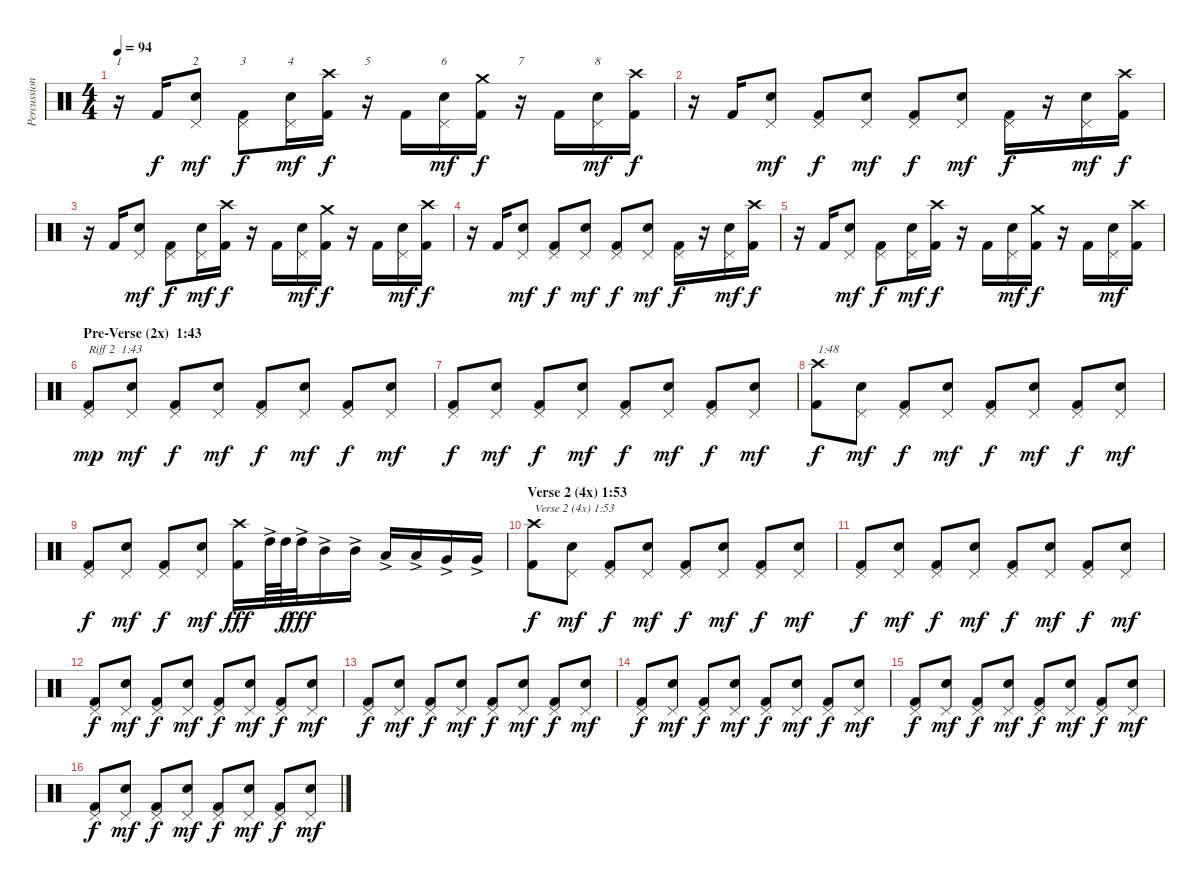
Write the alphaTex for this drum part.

\track ("Percussion" "Percussion") {instrument percussion}
\staff {score}
\articulation defaults
\chord ("1")
\chord ("2")
\chord ("3")
\chord ("4")
\chord ("5")
\chord ("6")
\chord ("7")
\chord ("8")
\ts (4 4)
\tempo 94
\clef neutral
\ks c
r.16{ch "1" dy f} "Kick (hit) 2".16 ("Snare (hit) 2" "Pedal Hi-Hat (hit)").8{ch "2" dy mf} ("Kick (hit) 2" "Pedal Hi-Hat (hit)").8{ch "3" dy f} ("Snare (hit) 2" "Pedal Hi-Hat (hit)").16{ch "4" dy mf} ("Kick (hit) 2" "Crash high (hit)").16{dy f} r.16{ch "5"} "Kick (hit) 2".16 ("Snare (hit) 2" "Pedal Hi-Hat (hit)").16{ch "6" dy mf} ("Kick (hit) 2" "Crash medium (hit)").16{dy f} r.16{ch "7"} "Kick (hit) 2".16 ("Snare (hit) 2" "Pedal Hi-Hat (hit)").16{ch "8" dy mf} ("Kick (hit) 2" "Crash high (hit)").16{dy f} |
r.16 "Kick (hit) 2".16 ("Snare (hit) 2" "Pedal Hi-Hat (hit)").8{dy mf} ("Kick (hit) 2" "Pedal Hi-Hat (hit)").8{dy f} ("Snare (hit) 2" "Pedal Hi-Hat (hit)").8{dy mf} ("Kick (hit) 2" "Pedal Hi-Hat (hit)").8{dy f} ("Snare (hit) 2" "Pedal Hi-Hat (hit)").8{dy mf} ("Kick (hit) 2" "Pedal Hi-Hat (hit)").16{dy f} r.16 ("Snare (hit) 2" "Pedal Hi-Hat (hit)").16{dy mf} ("Kick (hit) 2" "Crash high (hit)").16{dy f} |
r.16 "Kick (hit) 2".16 ("Snare (hit) 2" "Pedal Hi-Hat (hit)").8{dy mf} ("Kick (hit) 2" "Pedal Hi-Hat (hit)").8{dy f} ("Snare (hit) 2" "Pedal Hi-Hat (hit)").16{dy mf} ("Kick (hit) 2" "Crash high (hit)").16{dy f} r.16 "Kick (hit) 2".16 ("Snare (hit) 2" "Pedal Hi-Hat (hit)").16{dy mf} ("Kick (hit) 2" "Crash medium (hit)").16{dy f} r.16 "Kick (hit) 2".16 ("Snare (hit) 2" "Pedal Hi-Hat (hit)").16{dy mf} ("Kick (hit) 2" "Crash high (hit)").16{dy f} |
r.16 "Kick (hit) 2".16 ("Snare (hit) 2" "Pedal Hi-Hat (hit)").8{dy mf} ("Kick (hit) 2" "Pedal Hi-Hat (hit)").8{dy f} ("Snare (hit) 2" "Pedal Hi-Hat (hit)").8{dy mf} ("Kick (hit) 2" "Pedal Hi-Hat (hit)").8{dy f} ("Snare (hit) 2" "Pedal Hi-Hat (hit)").8{dy mf} ("Kick (hit) 2" "Pedal Hi-Hat (hit)").16{dy f} r.16 ("Snare (hit) 2" "Pedal Hi-Hat (hit)").16{dy mf} ("Kick (hit) 2" "Crash high (hit)").16{dy f} |
r.16 "Kick (hit) 2".16 ("Snare (hit) 2" "Pedal Hi-Hat (hit)").8{dy mf} ("Kick (hit) 2" "Pedal Hi-Hat (hit)").8{dy f} ("Snare (hit) 2" "Pedal Hi-Hat (hit)").16{dy mf} ("Kick (hit) 2" "Crash high (hit)").16{dy f} r.16 "Kick (hit) 2".16 ("Snare (hit) 2" "Pedal Hi-Hat (hit)").16{dy mf} ("Kick (hit) 2" "Crash medium (hit)").16{dy f} r.16 "Kick (hit) 2".16 ("Snare (hit) 2" "Pedal Hi-Hat (hit)").16{dy mf} ("Kick (hit) 2" "Crash high (hit)").16 |
\section ("" "Pre-Verse (2x)  1:43")
("Kick (hit) 2" "Pedal Hi-Hat (hit)").8{txt "Riff 2  1:43" dy mp} ("Snare (hit) 2" "Pedal Hi-Hat (hit)").8{dy mf} ("Kick (hit) 2" "Pedal Hi-Hat (hit)").8{dy f} ("Snare (hit) 2" "Pedal Hi-Hat (hit)").8{dy mf} ("Kick (hit) 2" "Pedal Hi-Hat (hit)").8{dy f} ("Snare (hit) 2" "Pedal Hi-Hat (hit)").8{dy mf} ("Kick (hit) 2" "Pedal Hi-Hat (hit)").8{dy f} ("Snare (hit) 2" "Pedal Hi-Hat (hit)").8{dy mf} |
("Kick (hit) 2" "Pedal Hi-Hat (hit)").8{dy f} ("Snare (hit) 2" "Pedal Hi-Hat (hit)").8{dy mf} ("Kick (hit) 2" "Pedal Hi-Hat (hit)").8{dy f} ("Snare (hit) 2" "Pedal Hi-Hat (hit)").8{dy mf} ("Kick (hit) 2" "Pedal Hi-Hat (hit)").8{dy f} ("Snare (hit) 2" "Pedal Hi-Hat (hit)").8{dy mf} ("Kick (hit) 2" "Pedal Hi-Hat (hit)").8{dy f} ("Snare (hit) 2" "Pedal Hi-Hat (hit)").8{dy mf} |
("Kick (hit) 2" "Crash high (hit)").8{txt "1:48" dy f} ("Snare (hit) 2" "Pedal Hi-Hat (hit)").8{dy mf} ("Kick (hit) 2" "Pedal Hi-Hat (hit)").8{dy f} ("Snare (hit) 2" "Pedal Hi-Hat (hit)").8{dy mf} ("Kick (hit) 2" "Pedal Hi-Hat (hit)").8{dy f} ("Snare (hit) 2" "Pedal Hi-Hat (hit)").8{dy mf} ("Kick (hit) 2" "Pedal Hi-Hat (hit)").8{dy f} ("Snare (hit) 2" "Pedal Hi-Hat (hit)").8{dy mf} |
("Kick (hit) 2" "Pedal Hi-Hat (hit)").8{dy f} ("Snare (hit) 2" "Pedal Hi-Hat (hit)").8{dy mf} ("Kick (hit) 2" "Pedal Hi-Hat (hit)").8{dy f} ("Snare (hit) 2" "Pedal Hi-Hat (hit)").8{dy mf} ("Kick (hit) 2" "Crash high (hit)").16{dy fff} "High Tom (hit)"{ac}.64 "High Tom (hit)".64{dy f} "High Tom (hit)"{ac}.32{dy fff} "Mid Tom (hit)"{ac}.16 "Mid Tom (hit)"{ac}.16 "Low Tom (hit)"{ac}.16 "Low Tom (hit)"{ac}.16 "Very Low Tom (hit)"{ac}.16 "Very Low Tom (hit)"{ac}.16 |
\section ("" "Verse 2 (4x) 1:53")
("Kick (hit) 2" "Crash high (hit)").8{txt "Verse 2 (4x) 1:53" dy f} ("Snare (hit) 2" "Pedal Hi-Hat (hit)").8{dy mf} ("Kick (hit) 2" "Pedal Hi-Hat (hit)").8{dy f} ("Snare (hit) 2" "Pedal Hi-Hat (hit)").8{dy mf} ("Kick (hit) 2" "Pedal Hi-Hat (hit)").8{dy f} ("Snare (hit) 2" "Pedal Hi-Hat (hit)").8{dy mf} ("Kick (hit) 2" "Pedal Hi-Hat (hit)").8{dy f} ("Snare (hit) 2" "Pedal Hi-Hat (hit)").8{dy mf} |
("Kick (hit) 2" "Pedal Hi-Hat (hit)").8{dy f} ("Snare (hit) 2" "Pedal Hi-Hat (hit)").8{dy mf} ("Kick (hit) 2" "Pedal Hi-Hat (hit)").8{dy f} ("Snare (hit) 2" "Pedal Hi-Hat (hit)").8{dy mf} ("Kick (hit) 2" "Pedal Hi-Hat (hit)").8{dy f} ("Snare (hit) 2" "Pedal Hi-Hat (hit)").8{dy mf} ("Kick (hit) 2" "Pedal Hi-Hat (hit)").8{dy f} ("Snare (hit) 2" "Pedal Hi-Hat (hit)").8{dy mf} |
("Kick (hit) 2" "Pedal Hi-Hat (hit)").8{dy f} ("Snare (hit) 2" "Pedal Hi-Hat (hit)").8{dy mf} ("Kick (hit) 2" "Pedal Hi-Hat (hit)").8{dy f} ("Snare (hit) 2" "Pedal Hi-Hat (hit)").8{dy mf} ("Kick (hit) 2" "Pedal Hi-Hat (hit)").8{dy f} ("Snare (hit) 2" "Pedal Hi-Hat (hit)").8{dy mf} ("Kick (hit) 2" "Pedal Hi-Hat (hit)").8{dy f} ("Snare (hit) 2" "Pedal Hi-Hat (hit)").8{dy mf} |
("Kick (hit) 2" "Pedal Hi-Hat (hit)").8{dy f} ("Snare (hit) 2" "Pedal Hi-Hat (hit)").8{dy mf} ("Kick (hit) 2" "Pedal Hi-Hat (hit)").8{dy f} ("Snare (hit) 2" "Pedal Hi-Hat (hit)").8{dy mf} ("Kick (hit) 2" "Pedal Hi-Hat (hit)").8{dy f} ("Snare (hit) 2" "Pedal Hi-Hat (hit)").8{dy mf} ("Kick (hit) 2" "Pedal Hi-Hat (hit)").8{dy f} ("Snare (hit) 2" "Pedal Hi-Hat (hit)").8{dy mf} |
("Kick (hit) 2" "Pedal Hi-Hat (hit)").8{dy f} ("Snare (hit) 2" "Pedal Hi-Hat (hit)").8{dy mf} ("Kick (hit) 2" "Pedal Hi-Hat (hit)").8{dy f} ("Snare (hit) 2" "Pedal Hi-Hat (hit)").8{dy mf} ("Kick (hit) 2" "Pedal Hi-Hat (hit)").8{dy f} ("Snare (hit) 2" "Pedal Hi-Hat (hit)").8{dy mf} ("Kick (hit) 2" "Pedal Hi-Hat (hit)").8{dy f} ("Snare (hit) 2" "Pedal Hi-Hat (hit)").8{dy mf} |
("Kick (hit) 2" "Pedal Hi-Hat (hit)").8{dy f} ("Snare (hit) 2" "Pedal Hi-Hat (hit)").8{dy mf} ("Kick (hit) 2" "Pedal Hi-Hat (hit)").8{dy f} ("Snare (hit) 2" "Pedal Hi-Hat (hit)").8{dy mf} ("Kick (hit) 2" "Pedal Hi-Hat (hit)").8{dy f} ("Snare (hit) 2" "Pedal Hi-Hat (hit)").8{dy mf} ("Kick (hit) 2" "Pedal Hi-Hat (hit)").8{dy f} ("Snare (hit) 2" "Pedal Hi-Hat (hit)").8{dy mf} |
("Kick (hit) 2" "Pedal Hi-Hat (hit)").8{dy f} ("Snare (hit) 2" "Pedal Hi-Hat (hit)").8{dy mf} ("Kick (hit) 2" "Pedal Hi-Hat (hit)").8{dy f} ("Snare (hit) 2" "Pedal Hi-Hat (hit)").8{dy mf} ("Kick (hit) 2" "Pedal Hi-Hat (hit)").8{dy f} ("Snare (hit) 2" "Pedal Hi-Hat (hit)").8{dy mf} ("Kick (hit) 2" "Pedal Hi-Hat (hit)").8{dy f} ("Snare (hit) 2" "Pedal Hi-Hat (hit)").8{dy mf}
